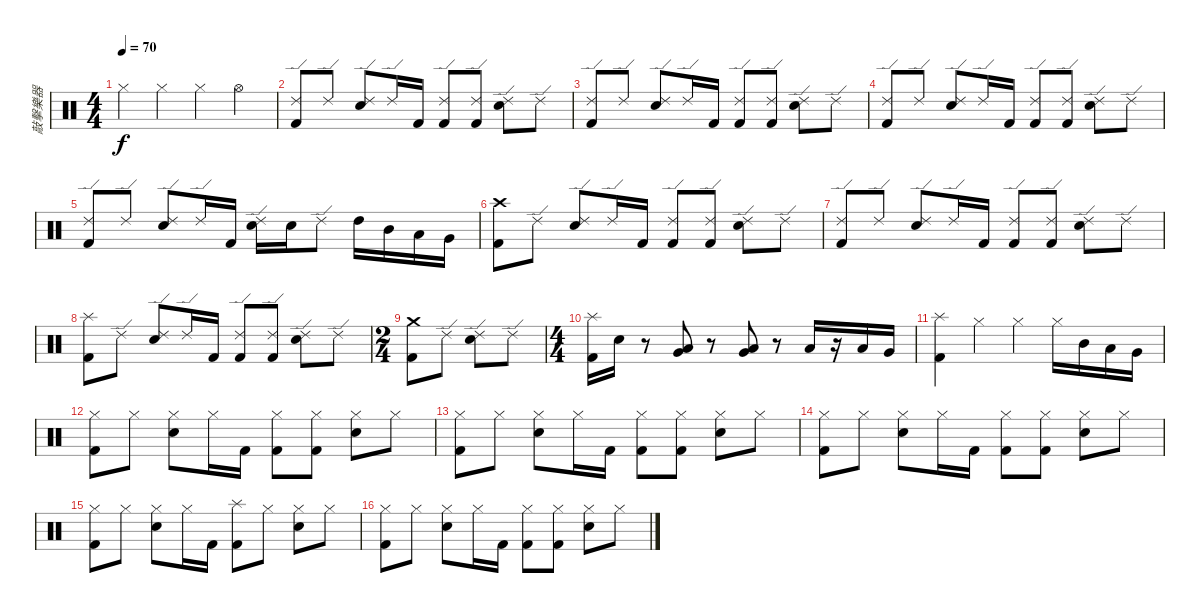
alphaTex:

\track ("敲擊樂器" "敲擊樂器") {instrument percussion}
\staff {score}
\articulation defaults
\ts (4 4)
\tempo 70
\clef neutral
\ks c "Hi-Hat (closed)".4{dy f} "Hi-Hat (closed)".4 "Hi-Hat (closed)".4 "Hi-Hat (open)".4
|
("Ride (edge) 2" "Kick (hit) 2").8 "Ride (edge) 2".8 ("Ride (edge) 2" "Snare (hit) 2").8 "Ride (edge) 2".16 "Kick (hit) 2".16 ("Ride (edge) 2" "Kick (hit) 2").8 ("Ride (edge) 2" "Kick (hit) 2").8 ("Ride (edge) 2" "Snare (hit) 2").8 "Ride (edge) 2".8 |
("Ride (edge) 2" "Kick (hit) 2").8 "Ride (edge) 2".8 ("Ride (edge) 2" "Snare (hit) 2").8 "Ride (edge) 2".16 "Kick (hit) 2".16 ("Ride (edge) 2" "Kick (hit) 2").8 ("Ride (edge) 2" "Kick (hit) 2").8 ("Ride (edge) 2" "Snare (hit) 2").8 "Ride (edge) 2".8 |
("Ride (edge) 2" "Kick (hit) 2").8 "Ride (edge) 2".8 ("Ride (edge) 2" "Snare (hit) 2").8 "Ride (edge) 2".16 "Kick (hit) 2".16 ("Ride (edge) 2" "Kick (hit) 2").8 ("Ride (edge) 2" "Kick (hit) 2").8 ("Ride (edge) 2" "Snare (hit) 2").8 "Ride (edge) 2".8 |
("Ride (edge) 2" "Kick (hit) 2").8 "Ride (edge) 2".8 ("Ride (edge) 2" "Snare (hit) 2").8 "Ride (edge) 2".16 "Kick (hit) 2".16 ("Ride (edge) 2" "Snare (hit) 2").16 "Snare (hit) 2".16 "Ride (edge) 2".8 "High Tom (hit)".16 "Mid Tom (hit)".16 "Low Tom (hit)".16 "Very Low Tom (hit)".16 |
("Crash high (hit)" "Kick (hit) 2").8 "Ride (edge) 2".8 ("Ride (edge) 2" "Snare (hit) 2").8 "Ride (edge) 2".16 "Kick (hit) 2".16 ("Ride (edge) 2" "Kick (hit) 2").8 ("Ride (edge) 2" "Kick (hit) 2").8 ("Ride (edge) 2" "Snare (hit) 2").8 "Ride (edge) 2".8 |
("Ride (edge) 2" "Kick (hit) 2").8 "Ride (edge) 2".8 ("Ride (edge) 2" "Snare (hit) 2").8 "Ride (edge) 2".16 "Kick (hit) 2".16 ("Ride (edge) 2" "Kick (hit) 2").8 ("Ride (edge) 2" "Kick (hit) 2").8 ("Ride (edge) 2" "Snare (hit) 2").8 "Ride (edge) 2".8 |
("Splash (hit)" "Kick (hit) 2").8 "Ride (edge) 2".8 ("Ride (edge) 2" "Snare (hit) 2").8 "Ride (edge) 2".16 "Kick (hit) 2".16 ("Ride (edge) 2" "Kick (hit) 2").8 ("Ride (edge) 2" "Kick (hit) 2").8 ("Ride (edge) 2" "Snare (hit) 2").8 "Ride (edge) 2".8 |
\ts (2 4)
("Crash medium (hit)" "Kick (hit) 2").8 "Ride (edge) 2".8 ("Ride (edge) 2" "Snare (hit) 2").8 "Ride (edge) 2".8 |
\ts (4 4)
("Splash (hit)" "Kick (hit) 2").16 "Snare (hit) 2".16 r.8 ("Very Low Tom (hit)" "Low Tom (hit)").8 r.8 ("Low Floor Tom (hit)" "Very Low Tom (hit)").8 r.8 "Low Floor Tom (hit)".16 r.16 "Low Tom (hit)".16 "Very Low Tom (hit)".16 |
("Splash (hit)" "Kick (hit) 2").4 "Hi-Hat (closed)".4 "Hi-Hat (closed)".4 "Hi-Hat (closed)".16 "Mid Tom (hit)".16 "Low Tom (hit)".16 "Very Low Tom (hit)".16 |
("Hi-Hat (closed)" "Kick (hit) 2").8 "Hi-Hat (closed)".8 ("Hi-Hat (closed)" "Snare (hit) 2").8 "Hi-Hat (closed)".16 "Kick (hit) 2".16 ("Hi-Hat (closed)" "Kick (hit) 2").8 ("Hi-Hat (closed)" "Kick (hit) 2").8 ("Hi-Hat (closed)" "Snare (hit) 2").8 "Hi-Hat (closed)".8 |
("Hi-Hat (closed)" "Kick (hit) 2").8 "Hi-Hat (closed)".8 ("Hi-Hat (closed)" "Snare (hit) 2").8 "Hi-Hat (closed)".16 "Kick (hit) 2".16 ("Hi-Hat (closed)" "Kick (hit) 2").8 ("Hi-Hat (closed)" "Kick (hit) 2").8 ("Hi-Hat (closed)" "Snare (hit) 2").8 "Hi-Hat (closed)".8 |
("Hi-Hat (closed)" "Kick (hit) 2").8 "Hi-Hat (closed)".8 ("Hi-Hat (closed)" "Snare (hit) 2").8 "Hi-Hat (closed)".16 "Kick (hit) 2".16 ("Hi-Hat (closed)" "Kick (hit) 2").8 ("Hi-Hat (closed)" "Kick (hit) 2").8 ("Hi-Hat (closed)" "Snare (hit) 2").8 "Hi-Hat (closed)".8 |
("Hi-Hat (closed)" "Kick (hit) 2").8 "Hi-Hat (closed)".8 ("Hi-Hat (closed)" "Snare (hit) 2").8 "Hi-Hat (closed)".16 "Kick (hit) 2".16 ("Splash (hit)" "Kick (hit) 2").8 "Hi-Hat (closed)".8 ("Hi-Hat (closed)" "Snare (hit) 2").8 "Hi-Hat (closed)".8 |
("Hi-Hat (closed)" "Kick (hit) 2").8 "Hi-Hat (closed)".8 ("Hi-Hat (closed)" "Snare (hit) 2").8 "Hi-Hat (closed)".16 "Kick (hit) 2".16 ("Hi-Hat (closed)" "Kick (hit) 2").8 ("Hi-Hat (closed)" "Kick (hit) 2").8 ("Hi-Hat (closed)" "Snare (hit) 2").8 "Hi-Hat (closed)".8
